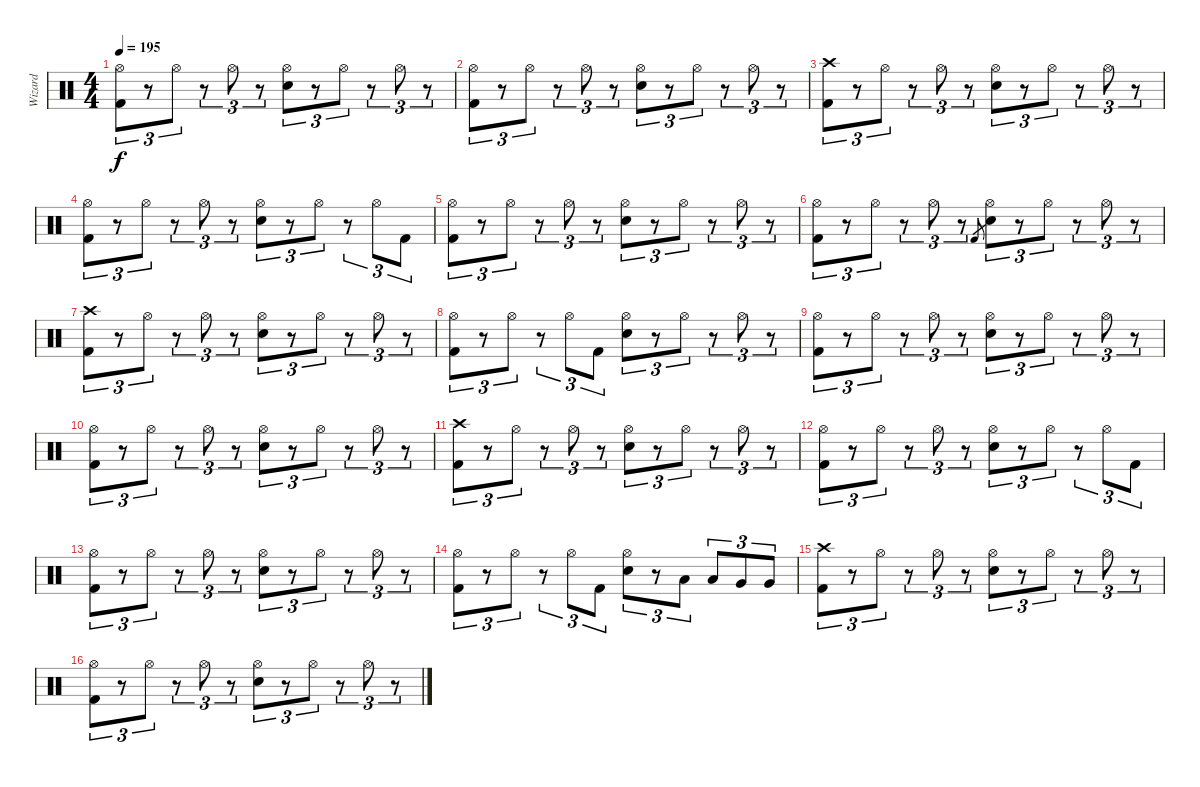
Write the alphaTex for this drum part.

\track ("Wizard" "Wizard") {instrument percussion}
\staff {score}
\articulation defaults
\ts (4 4)
\tempo 195
\clef neutral
\ks c
("Hi-Hat (open)" "Kick (hit) 2").8{tu (3 2) dy f} r.8{tu (3 2)} "Hi-Hat (open)".8{tu (3 2)} r.8{tu (3 2)} "Hi-Hat (open)".8{tu (3 2)} r.8{tu (3 2)} ("Hi-Hat (open)" "Snare (hit) 2").8{tu (3 2)} r.8{tu (3 2)} "Hi-Hat (open)".8{tu (3 2)} r.8{tu (3 2)} "Hi-Hat (open)".8{tu (3 2)} r.8{tu (3 2)} |
("Hi-Hat (open)" "Kick (hit) 2").8{tu (3 2)} r.8{tu (3 2)} "Hi-Hat (open)".8{tu (3 2)} r.8{tu (3 2)} "Hi-Hat (open)".8{tu (3 2)} r.8{tu (3 2)} ("Hi-Hat (open)" "Snare (hit) 2").8{tu (3 2)} r.8{tu (3 2)} "Hi-Hat (open)".8{tu (3 2)} r.8{tu (3 2)} "Hi-Hat (open)".8{tu (3 2)} r.8{tu (3 2)} |
("Crash high (hit)" "Kick (hit) 2").8{tu (3 2)} r.8{tu (3 2)} "Hi-Hat (open)".8{tu (3 2)} r.8{tu (3 2)} "Hi-Hat (open)".8{tu (3 2)} r.8{tu (3 2)} ("Hi-Hat (open)" "Snare (hit) 2").8{tu (3 2)} r.8{tu (3 2)} "Hi-Hat (open)".8{tu (3 2)} r.8{tu (3 2)} "Hi-Hat (open)".8{tu (3 2)} r.8{tu (3 2)} |
("Hi-Hat (open)" "Kick (hit) 2").8{tu (3 2)} r.8{tu (3 2)} "Hi-Hat (open)".8{tu (3 2)} r.8{tu (3 2)} "Hi-Hat (open)".8{tu (3 2)} r.8{tu (3 2)} ("Hi-Hat (open)" "Snare (hit) 2").8{tu (3 2)} r.8{tu (3 2)} "Hi-Hat (open)".8{tu (3 2)} r.8{tu (3 2)} "Hi-Hat (open)".8{tu (3 2)} "Kick (hit) 2".8{tu (3 2)} |
("Hi-Hat (open)" "Kick (hit) 2").8{tu (3 2)} r.8{tu (3 2)} "Hi-Hat (open)".8{tu (3 2)} r.8{tu (3 2)} "Hi-Hat (open)".8{tu (3 2)} r.8{tu (3 2)} ("Hi-Hat (open)" "Snare (hit) 2").8{tu (3 2)} r.8{tu (3 2)} "Hi-Hat (open)".8{tu (3 2)} r.8{tu (3 2)} "Hi-Hat (open)".8{tu (3 2)} r.8{tu (3 2)} |
("Hi-Hat (open)" "Kick (hit) 2").8{tu (3 2)} r.8{tu (3 2)} "Hi-Hat (open)".8{tu (3 2)} r.8{tu (3 2)} "Hi-Hat (open)".8{tu (3 2)} r.8{tu (3 2)} "Kick (hit) 2".8{gr} ("Hi-Hat (open)" "Snare (hit) 2").8{tu (3 2)} r.8{tu (3 2)} "Hi-Hat (open)".8{tu (3 2)} r.8{tu (3 2)} "Hi-Hat (open)".8{tu (3 2)} r.8{tu (3 2)} |
("Crash high (hit)" "Kick (hit) 2").8{tu (3 2)} r.8{tu (3 2)} "Hi-Hat (open)".8{tu (3 2)} r.8{tu (3 2)} "Hi-Hat (open)".8{tu (3 2)} r.8{tu (3 2)} ("Hi-Hat (open)" "Snare (hit) 2").8{tu (3 2)} r.8{tu (3 2)} "Hi-Hat (open)".8{tu (3 2)} r.8{tu (3 2)} "Hi-Hat (open)".8{tu (3 2)} r.8{tu (3 2)} |
("Hi-Hat (open)" "Kick (hit) 2").8{tu (3 2)} r.8{tu (3 2)} "Hi-Hat (open)".8{tu (3 2)} r.8{tu (3 2)} "Hi-Hat (open)".8{tu (3 2)} "Kick (hit) 2".8{tu (3 2)} ("Hi-Hat (open)" "Snare (hit) 2").8{tu (3 2)} r.8{tu (3 2)} "Hi-Hat (open)".8{tu (3 2)} r.8{tu (3 2)} "Hi-Hat (open)".8{tu (3 2)} r.8{tu (3 2)} |
("Hi-Hat (open)" "Kick (hit) 2").8{tu (3 2)} r.8{tu (3 2)} "Hi-Hat (open)".8{tu (3 2)} r.8{tu (3 2)} "Hi-Hat (open)".8{tu (3 2)} r.8{tu (3 2)} ("Hi-Hat (open)" "Snare (hit) 2").8{tu (3 2)} r.8{tu (3 2)} "Hi-Hat (open)".8{tu (3 2)} r.8{tu (3 2)} "Hi-Hat (open)".8{tu (3 2)} r.8{tu (3 2)} |
("Hi-Hat (open)" "Kick (hit) 2").8{tu (3 2)} r.8{tu (3 2)} "Hi-Hat (open)".8{tu (3 2)} r.8{tu (3 2)} "Hi-Hat (open)".8{tu (3 2)} r.8{tu (3 2)} ("Hi-Hat (open)" "Snare (hit) 2").8{tu (3 2)} r.8{tu (3 2)} "Hi-Hat (open)".8{tu (3 2)} r.8{tu (3 2)} "Hi-Hat (open)".8{tu (3 2)} r.8{tu (3 2)} |
("Crash high (hit)" "Kick (hit) 2").8{tu (3 2)} r.8{tu (3 2)} "Hi-Hat (open)".8{tu (3 2)} r.8{tu (3 2)} "Hi-Hat (open)".8{tu (3 2)} r.8{tu (3 2)} ("Hi-Hat (open)" "Snare (hit) 2").8{tu (3 2)} r.8{tu (3 2)} "Hi-Hat (open)".8{tu (3 2)} r.8{tu (3 2)} "Hi-Hat (open)".8{tu (3 2)} r.8{tu (3 2)} |
("Hi-Hat (open)" "Kick (hit) 2").8{tu (3 2)} r.8{tu (3 2)} "Hi-Hat (open)".8{tu (3 2)} r.8{tu (3 2)} "Hi-Hat (open)".8{tu (3 2)} r.8{tu (3 2)} ("Hi-Hat (open)" "Snare (hit) 2").8{tu (3 2)} r.8{tu (3 2)} "Hi-Hat (open)".8{tu (3 2)} r.8{tu (3 2)} "Hi-Hat (open)".8{tu (3 2)} "Kick (hit) 2".8{tu (3 2)} |
("Hi-Hat (open)" "Kick (hit) 2").8{tu (3 2)} r.8{tu (3 2)} "Hi-Hat (open)".8{tu (3 2)} r.8{tu (3 2)} "Hi-Hat (open)".8{tu (3 2)} r.8{tu (3 2)} ("Hi-Hat (open)" "Snare (hit) 2").8{tu (3 2)} r.8{tu (3 2)} "Hi-Hat (open)".8{tu (3 2)} r.8{tu (3 2)} "Hi-Hat (open)".8{tu (3 2)} r.8{tu (3 2)} |
("Hi-Hat (open)" "Kick (hit) 2").8{tu (3 2)} r.8{tu (3 2)} "Hi-Hat (open)".8{tu (3 2)} r.8{tu (3 2)} "Hi-Hat (open)".8{tu (3 2)} "Kick (hit) 2".8{tu (3 2)} ("Hi-Hat (open)" "Snare (hit) 2").8{tu (3 2)} r.8{tu (3 2)} "Low Tom (hit)".8{tu (3 2)} "Low Tom (hit)".8{tu (3 2)} "Very Low Tom (hit)".8{tu (3 2)} "Very Low Tom (hit)".8{tu (3 2)} |
("Crash high (hit)" "Kick (hit) 2").8{tu (3 2)} r.8{tu (3 2)} "Hi-Hat (open)".8{tu (3 2)} r.8{tu (3 2)} "Hi-Hat (open)".8{tu (3 2)} r.8{tu (3 2)} ("Hi-Hat (open)" "Snare (hit) 2").8{tu (3 2)} r.8{tu (3 2)} "Hi-Hat (open)".8{tu (3 2)} r.8{tu (3 2)} "Hi-Hat (open)".8{tu (3 2)} r.8{tu (3 2)} |
("Hi-Hat (open)" "Kick (hit) 2").8{tu (3 2)} r.8{tu (3 2)} "Hi-Hat (open)".8{tu (3 2)} r.8{tu (3 2)} "Hi-Hat (open)".8{tu (3 2)} r.8{tu (3 2)} ("Hi-Hat (open)" "Snare (hit) 2").8{tu (3 2)} r.8{tu (3 2)} "Hi-Hat (open)".8{tu (3 2)} r.8{tu (3 2)} "Hi-Hat (open)".8{tu (3 2)} r.8{tu (3 2)}
